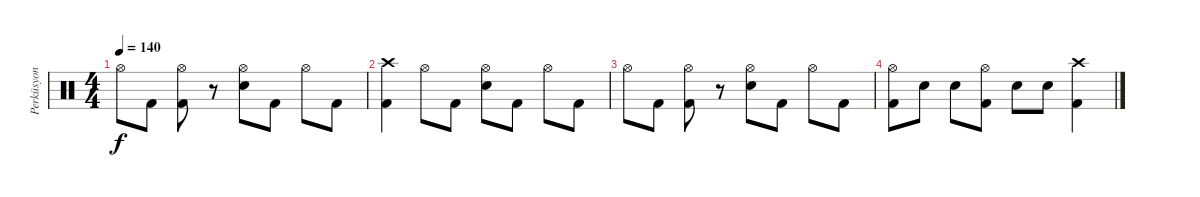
\track ("Perküsyon" "Perküsyon") {instrument percussion}
\staff {score}
\articulation defaults
\ts (4 4)
\tempo 140
\clef neutral
\ks c "Hi-Hat (open)".8{dy f} "Kick (hit) 2".8
("Hi-Hat (open)" "Kick (hit) 2").8 r.8 ("Hi-Hat (open)" "Electric Snare (hit)").8 "Kick (hit) 2".8 "Hi-Hat (open)".8 "Kick (hit) 2".8 |
("Crash high (hit)" "Kick (hit) 2").4 "Hi-Hat (open)".8 "Kick (hit) 2".8 ("Hi-Hat (open)" "Electric Snare (hit)").8 "Kick (hit) 2".8 "Hi-Hat (open)".8 "Kick (hit) 2".8 |
"Hi-Hat (open)".8 "Kick (hit) 2".8 ("Hi-Hat (open)" "Kick (hit) 2").8 r.8 ("Hi-Hat (open)" "Electric Snare (hit)").8 "Kick (hit) 2".8 "Hi-Hat (open)".8 "Kick (hit) 2".8 |
("Hi-Hat (open)" "Kick (hit) 2").8 "Electric Snare (hit)".8 "Electric Snare (hit)".8 ("Hi-Hat (open)" "Kick (hit) 2").8 "Electric Snare (hit)".8 "Electric Snare (hit)".8 ("Crash high (hit)" "Kick (hit) 2").4
